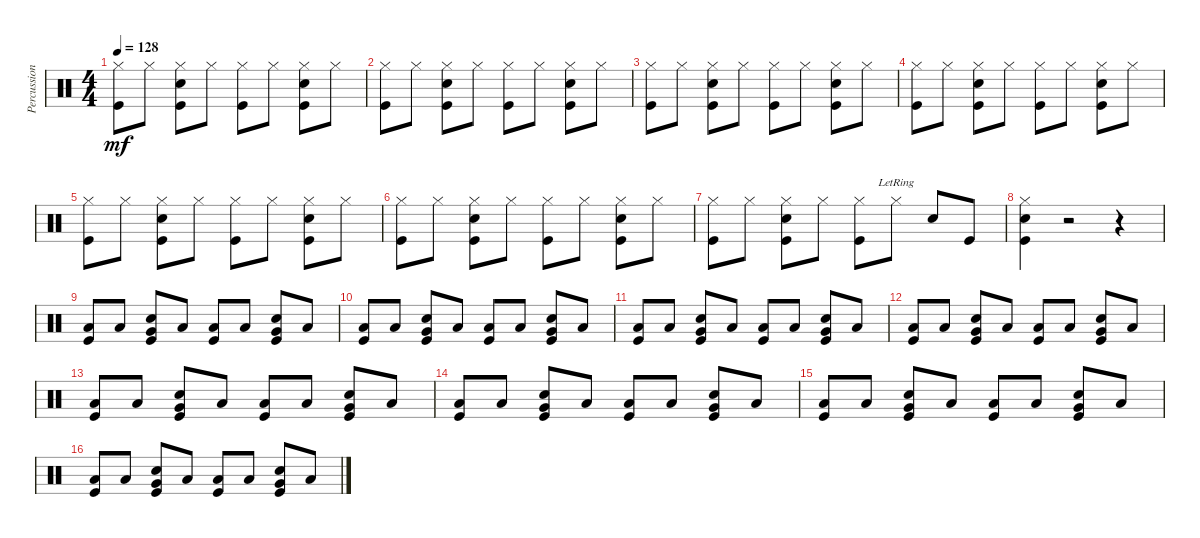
\track ("Percussions" "Percussion") {instrument percussion}
\staff {score}
\articulation defaults
\ts (4 4)
\tempo 128
\clef neutral
\ks c
("Hi-Hat (closed)" "Kick (hit)").8{dy mf} "Hi-Hat (closed)".8 ("Hi-Hat (closed)" "Snare (hit) 2" "Kick (hit)").8 "Hi-Hat (closed)".8 ("Hi-Hat (closed)" "Kick (hit)").8 "Hi-Hat (closed)".8 ("Hi-Hat (closed)" "Snare (hit) 2" "Kick (hit)").8 "Hi-Hat (closed)".8 |
("Hi-Hat (closed)" "Kick (hit)").8 "Hi-Hat (closed)".8 ("Hi-Hat (closed)" "Snare (hit) 2" "Kick (hit)").8 "Hi-Hat (closed)".8 ("Hi-Hat (closed)" "Kick (hit)").8 "Hi-Hat (closed)".8 ("Hi-Hat (closed)" "Snare (hit) 2" "Kick (hit)").8 "Hi-Hat (closed)".8 |
("Hi-Hat (closed)" "Kick (hit)").8 "Hi-Hat (closed)".8 ("Hi-Hat (closed)" "Snare (hit) 2" "Kick (hit)").8 "Hi-Hat (closed)".8 ("Hi-Hat (closed)" "Kick (hit)").8 "Hi-Hat (closed)".8 ("Hi-Hat (closed)" "Snare (hit) 2" "Kick (hit)").8 "Hi-Hat (closed)".8 |
("Hi-Hat (closed)" "Kick (hit)").8 "Hi-Hat (closed)".8 ("Hi-Hat (closed)" "Snare (hit) 2" "Kick (hit)").8 "Hi-Hat (closed)".8 ("Hi-Hat (closed)" "Kick (hit)").8 "Hi-Hat (closed)".8 ("Hi-Hat (closed)" "Snare (hit) 2" "Kick (hit)").8 "Hi-Hat (closed)".8 |
("Hi-Hat (closed)" "Kick (hit)").8 "Hi-Hat (closed)".8 ("Hi-Hat (closed)" "Snare (hit) 2" "Kick (hit)").8 "Hi-Hat (closed)".8 ("Hi-Hat (closed)" "Kick (hit)").8 "Hi-Hat (closed)".8 ("Hi-Hat (closed)" "Snare (hit) 2" "Kick (hit)").8 "Hi-Hat (closed)".8 |
("Hi-Hat (closed)" "Kick (hit)").8 "Hi-Hat (closed)".8 ("Hi-Hat (closed)" "Snare (hit) 2" "Kick (hit)").8 "Hi-Hat (closed)".8 ("Hi-Hat (closed)" "Kick (hit)").8 "Hi-Hat (closed)".8 ("Hi-Hat (closed)" "Snare (hit) 2" "Kick (hit)").8 "Hi-Hat (closed)".8 |
("Hi-Hat (closed)" "Kick (hit)").8 "Hi-Hat (closed)".8 ("Hi-Hat (closed)" "Snare (hit) 2" "Kick (hit)").8 "Hi-Hat (closed)".8 ("Hi-Hat (closed)" "Kick (hit)").8 "Hi-Hat (closed)"{lr}.8 "Snare (hit) 2".8 "Kick (hit)".8 |
("Hi-Hat (closed)" "Snare (hit) 2" "Kick (hit)").4 r.2 r.4 |
("Low Floor Tom (hit)" "Kick (hit)").8 "Low Floor Tom (hit)".8 ("Very Low Tom (hit)" "Snare (hit) 2" "Kick (hit)").8 "Low Floor Tom (hit)".8 ("Low Floor Tom (hit)" "Kick (hit)").8 "Low Floor Tom (hit)".8 ("Very Low Tom (hit)" "Snare (hit) 2" "Kick (hit)").8 "Low Floor Tom (hit)".8 |
("Low Floor Tom (hit)" "Kick (hit)").8 "Low Floor Tom (hit)".8 ("Very Low Tom (hit)" "Snare (hit) 2" "Kick (hit)").8 "Low Floor Tom (hit)".8 ("Low Floor Tom (hit)" "Kick (hit)").8 "Low Floor Tom (hit)".8 ("Very Low Tom (hit)" "Snare (hit) 2" "Kick (hit)").8 "Low Floor Tom (hit)".8 |
("Low Floor Tom (hit)" "Kick (hit)").8 "Low Floor Tom (hit)".8 ("Very Low Tom (hit)" "Snare (hit) 2" "Kick (hit)").8 "Low Floor Tom (hit)".8 ("Low Floor Tom (hit)" "Kick (hit)").8 "Low Floor Tom (hit)".8 ("Very Low Tom (hit)" "Snare (hit) 2" "Kick (hit)").8 "Low Floor Tom (hit)".8 |
("Low Floor Tom (hit)" "Kick (hit)").8 "Low Floor Tom (hit)".8 ("Very Low Tom (hit)" "Snare (hit) 2" "Kick (hit)").8 "Low Floor Tom (hit)".8 ("Low Floor Tom (hit)" "Kick (hit)").8 "Low Floor Tom (hit)".8 ("Very Low Tom (hit)" "Snare (hit) 2" "Kick (hit)").8 "Low Floor Tom (hit)".8 |
("Low Floor Tom (hit)" "Kick (hit)").8 "Low Floor Tom (hit)".8 ("Very Low Tom (hit)" "Snare (hit) 2" "Kick (hit)").8 "Low Floor Tom (hit)".8 ("Low Floor Tom (hit)" "Kick (hit)").8 "Low Floor Tom (hit)".8 ("Very Low Tom (hit)" "Snare (hit) 2" "Kick (hit)").8 "Low Floor Tom (hit)".8 |
("Low Floor Tom (hit)" "Kick (hit)").8 "Low Floor Tom (hit)".8 ("Very Low Tom (hit)" "Snare (hit) 2" "Kick (hit)").8 "Low Floor Tom (hit)".8 ("Low Floor Tom (hit)" "Kick (hit)").8 "Low Floor Tom (hit)".8 ("Very Low Tom (hit)" "Snare (hit) 2" "Kick (hit)").8 "Low Floor Tom (hit)".8 |
("Low Floor Tom (hit)" "Kick (hit)").8 "Low Floor Tom (hit)".8 ("Very Low Tom (hit)" "Snare (hit) 2" "Kick (hit)").8 "Low Floor Tom (hit)".8 ("Low Floor Tom (hit)" "Kick (hit)").8 "Low Floor Tom (hit)".8 ("Very Low Tom (hit)" "Snare (hit) 2" "Kick (hit)").8 "Low Floor Tom (hit)".8 |
("Low Floor Tom (hit)" "Kick (hit)").8 "Low Floor Tom (hit)".8 ("Very Low Tom (hit)" "Snare (hit) 2" "Kick (hit)").8 "Low Floor Tom (hit)".8 ("Low Floor Tom (hit)" "Kick (hit)").8 "Low Floor Tom (hit)".8 ("Very Low Tom (hit)" "Snare (hit) 2" "Kick (hit)").8 "Low Floor Tom (hit)".8
